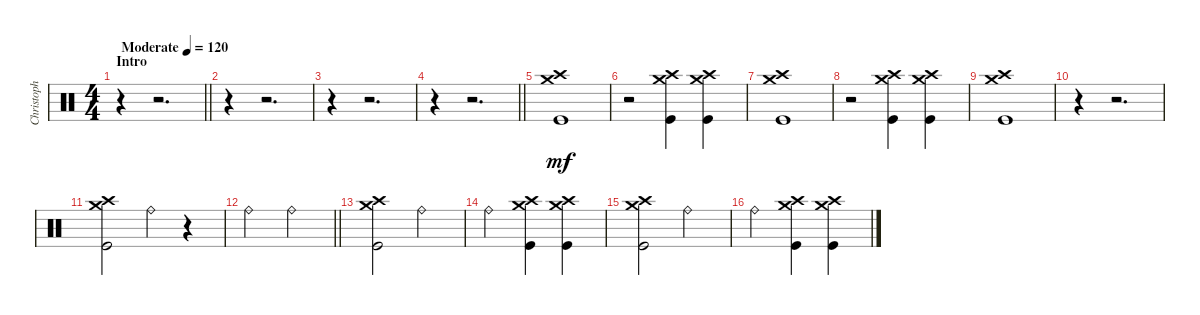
\track ("Christoph Schneider" "Christoph ") {instrument percussion}
\staff {score}
\articulation defaults
\ts (4 4)
\section ("" "Intro ")
\tempo (120 "Moderate")
\clef neutral
\barLineRight lightlight
\ks c
r.4{dy mf} r.2{d} |
\section ("" "")
r.4 r.2{d} |
r.4 r.2{d} |
\barLineRight lightlight
r.4 r.2{d} |
("Kick (hit)" "Crash high (hit)" "Crash medium (hit)").1 |
r.2 ("Kick (hit)" "Crash high (hit)" "Crash medium (hit)").4 ("Kick (hit)" "Crash high (hit)" "Crash medium (hit)").4 |
("Kick (hit)" "Crash high (hit)" "Crash medium (hit)").1 |
r.2 ("Kick (hit)" "Crash high (hit)" "Crash medium (hit)").4 ("Kick (hit)" "Crash high (hit)" "Crash medium (hit)").4 |
("Kick (hit)" "Crash high (hit)" "Crash medium (hit)").1 |
r.4 r.2{d} |
("Kick (hit)" "Crash high (hit)" "Crash medium (hit)").2 "Ride (bell)".4 r.4 |
\barLineRight lightlight "Ride (bell)".2 "Ride (bell)".2
|
("Kick (hit)" "Crash high (hit)" "Crash medium (hit)").2 "Ride (bell)".2 |
"Ride (bell)".2 ("Kick (hit)" "Crash high (hit)" "Crash medium (hit)").4 ("Kick (hit)" "Crash high (hit)" "Crash medium (hit)").4 |
("Kick (hit)" "Crash high (hit)" "Crash medium (hit)").2 "Ride (bell)".2 |
"Ride (bell)".2 ("Kick (hit)" "Crash high (hit)" "Crash medium (hit)").4 ("Kick (hit)" "Crash high (hit)" "Crash medium (hit)").4
